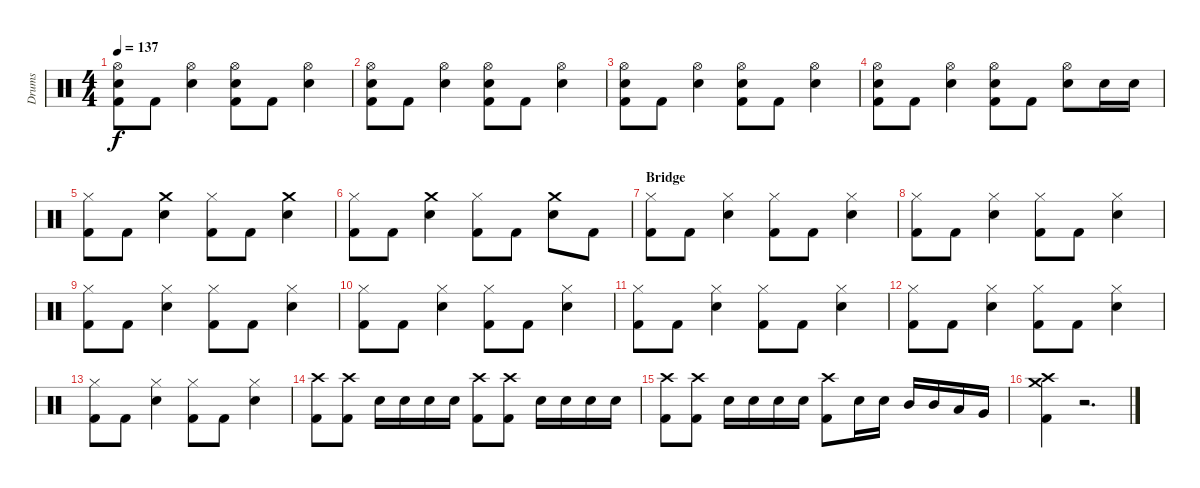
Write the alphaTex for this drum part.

\track ("Drums" "Drums") {instrument percussion}
\staff {score}
\articulation defaults
\ts (4 4)
\tempo 137
\clef neutral
\ks c
("Hi-Hat (open)" "Electric Snare (hit)" "Kick (hit) 2").8{dy f} "Kick (hit) 2".8 ("Hi-Hat (open)" "Electric Snare (hit)").4 ("Hi-Hat (open)" "Electric Snare (hit)" "Kick (hit) 2").8 "Kick (hit) 2".8 ("Hi-Hat (open)" "Electric Snare (hit)").4 |
("Hi-Hat (open)" "Electric Snare (hit)" "Kick (hit) 2").8 "Kick (hit) 2".8 ("Hi-Hat (open)" "Electric Snare (hit)").4 ("Hi-Hat (open)" "Electric Snare (hit)" "Kick (hit) 2").8 "Kick (hit) 2".8 ("Hi-Hat (open)" "Electric Snare (hit)").4 |
("Hi-Hat (open)" "Electric Snare (hit)" "Kick (hit) 2").8 "Kick (hit) 2".8 ("Hi-Hat (open)" "Electric Snare (hit)").4 ("Hi-Hat (open)" "Electric Snare (hit)" "Kick (hit) 2").8 "Kick (hit) 2".8 ("Hi-Hat (open)" "Electric Snare (hit)").4 |
("Hi-Hat (open)" "Electric Snare (hit)" "Kick (hit) 2").8 "Kick (hit) 2".8 ("Hi-Hat (open)" "Electric Snare (hit)").4 ("Hi-Hat (open)" "Electric Snare (hit)" "Kick (hit) 2").8 "Kick (hit) 2".8 ("Hi-Hat (open)" "Electric Snare (hit)").8 "Electric Snare (hit)".16 "Electric Snare (hit)".16 |
("Hi-Hat (closed)" "Kick (hit) 2").8 "Kick (hit) 2".8 ("Crash medium (hit)" "Electric Snare (hit)").4 ("Hi-Hat (closed)" "Kick (hit) 2").8 "Kick (hit) 2".8 ("Crash medium (hit)" "Electric Snare (hit)").4 |
("Hi-Hat (closed)" "Kick (hit) 2").8 "Kick (hit) 2".8 ("Crash medium (hit)" "Electric Snare (hit)").4 ("Hi-Hat (closed)" "Kick (hit) 2").8 "Kick (hit) 2".8 ("Crash medium (hit)" "Electric Snare (hit)").8 "Kick (hit) 2".8 |
\section ("" "Bridge")
("Hi-Hat (closed)" "Kick (hit) 2").8 "Kick (hit) 2".8 ("Hi-Hat (closed)" "Electric Snare (hit)").4 ("Hi-Hat (closed)" "Kick (hit) 2").8 "Kick (hit) 2".8 ("Hi-Hat (closed)" "Electric Snare (hit)").4 |
("Hi-Hat (closed)" "Kick (hit) 2").8 "Kick (hit) 2".8 ("Hi-Hat (closed)" "Electric Snare (hit)").4 ("Hi-Hat (closed)" "Kick (hit) 2").8 "Kick (hit) 2".8 ("Hi-Hat (closed)" "Electric Snare (hit)").4 |
("Hi-Hat (closed)" "Kick (hit) 2").8 "Kick (hit) 2".8 ("Hi-Hat (closed)" "Electric Snare (hit)").4 ("Hi-Hat (closed)" "Kick (hit) 2").8 "Kick (hit) 2".8 ("Hi-Hat (closed)" "Electric Snare (hit)").4 |
("Hi-Hat (closed)" "Kick (hit) 2").8 "Kick (hit) 2".8 ("Hi-Hat (closed)" "Electric Snare (hit)").4 ("Hi-Hat (closed)" "Kick (hit) 2").8 "Kick (hit) 2".8 ("Hi-Hat (closed)" "Electric Snare (hit)").4 |
("Hi-Hat (closed)" "Kick (hit) 2").8 "Kick (hit) 2".8 ("Hi-Hat (closed)" "Electric Snare (hit)").4 ("Hi-Hat (closed)" "Kick (hit) 2").8 "Kick (hit) 2".8 ("Hi-Hat (closed)" "Electric Snare (hit)").4 |
("Hi-Hat (closed)" "Kick (hit) 2").8 "Kick (hit) 2".8 ("Hi-Hat (closed)" "Electric Snare (hit)").4 ("Hi-Hat (closed)" "Kick (hit) 2").8 "Kick (hit) 2".8 ("Hi-Hat (closed)" "Electric Snare (hit)").4 |
("Hi-Hat (closed)" "Kick (hit) 2").8 "Kick (hit) 2".8 ("Hi-Hat (closed)" "Electric Snare (hit)").4 ("Hi-Hat (closed)" "Kick (hit) 2").8 "Kick (hit) 2".8 ("Hi-Hat (closed)" "Electric Snare (hit)").4 |
("Crash high (hit)" "Kick (hit) 2").8 ("Crash high (hit)" "Kick (hit) 2").8 "Electric Snare (hit)".16 "Electric Snare (hit)".16 "Electric Snare (hit)".16 "Electric Snare (hit)".16 ("Crash high (hit)" "Kick (hit) 2").8 ("Crash high (hit)" "Kick (hit) 2").8 "Electric Snare (hit)".16 "Electric Snare (hit)".16 "Electric Snare (hit)".16 "Electric Snare (hit)".16 |
("Crash high (hit)" "Kick (hit) 2").8 ("Crash high (hit)" "Kick (hit) 2").8 "Electric Snare (hit)".16 "Electric Snare (hit)".16 "Electric Snare (hit)".16 "Electric Snare (hit)".16 ("Crash high (hit)" "Kick (hit) 2").8 "Electric Snare (hit)".16 "Electric Snare (hit)".16 "Mid Tom (hit)".16 "Mid Tom (hit)".16 "Low Tom (hit)".16 "Very Low Tom (hit)".16 |
("Crash high (hit)" "Crash medium (hit)" "Kick (hit) 2").4 r.2{d}
